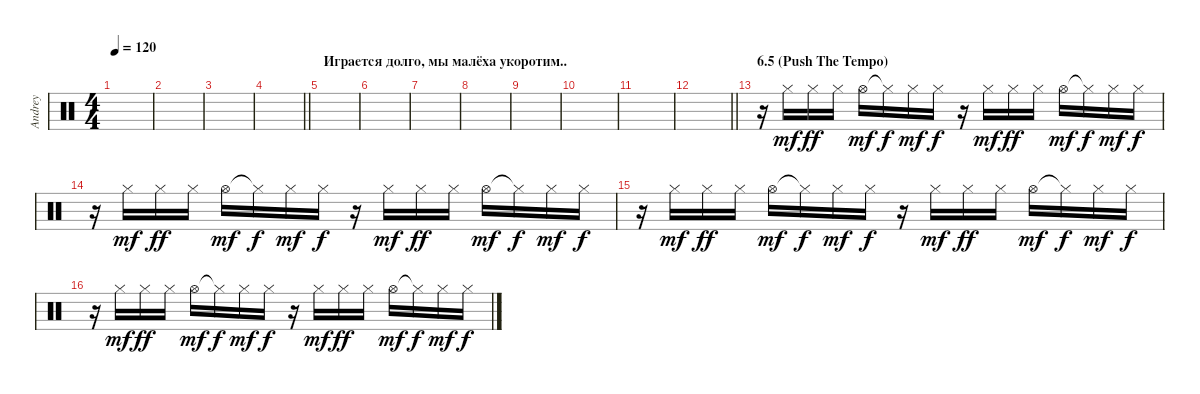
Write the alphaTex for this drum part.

\track ("Andrey" "Andrey") {instrument percussion}
\staff {score}
\articulation defaults
\ts (4 4)
\tempo 120
\clef neutral
\ks c
|
|
|
\barLineRight lightlight
|
\section ("" "Играется долго, мы малёха укоротим..")
|
|
|
|
|
|
|
\barLineRight lightlight
|
\section ("" "6.5 (Push The Tempo)")
r.16{volume 16} "Hi-Hat (closed)".16{dy mf} "Hi-Hat (closed)".16{dy ff} "Hi-Hat (closed)".16 "Hi-Hat (open)".16{dy mf} "Hi-Hat (closed)"{t}.16{dy f} "Hi-Hat (closed)".16{dy mf} "Hi-Hat (closed)".16{dy f} r.16 "Hi-Hat (closed)".16{dy mf} "Hi-Hat (closed)".16{dy ff} "Hi-Hat (closed)".16 "Hi-Hat (open)".16{dy mf} "Hi-Hat (closed)"{t}.16{dy f} "Hi-Hat (closed)".16{dy mf} "Hi-Hat (closed)".16{dy f} |
r.16 "Hi-Hat (closed)".16{dy mf} "Hi-Hat (closed)".16{dy ff} "Hi-Hat (closed)".16 "Hi-Hat (open)".16{dy mf} "Hi-Hat (closed)"{t}.16{dy f} "Hi-Hat (closed)".16{dy mf} "Hi-Hat (closed)".16{dy f} r.16 "Hi-Hat (closed)".16{dy mf} "Hi-Hat (closed)".16{dy ff} "Hi-Hat (closed)".16 "Hi-Hat (open)".16{dy mf} "Hi-Hat (closed)"{t}.16{dy f} "Hi-Hat (closed)".16{dy mf} "Hi-Hat (closed)".16{dy f} |
r.16 "Hi-Hat (closed)".16{dy mf} "Hi-Hat (closed)".16{dy ff} "Hi-Hat (closed)".16 "Hi-Hat (open)".16{dy mf} "Hi-Hat (closed)"{t}.16{dy f} "Hi-Hat (closed)".16{dy mf} "Hi-Hat (closed)".16{dy f} r.16 "Hi-Hat (closed)".16{dy mf} "Hi-Hat (closed)".16{dy ff} "Hi-Hat (closed)".16 "Hi-Hat (open)".16{dy mf} "Hi-Hat (closed)"{t}.16{dy f} "Hi-Hat (closed)".16{dy mf} "Hi-Hat (closed)".16{dy f} |
r.16 "Hi-Hat (closed)".16{dy mf} "Hi-Hat (closed)".16{dy ff} "Hi-Hat (closed)".16 "Hi-Hat (open)".16{dy mf} "Hi-Hat (closed)"{t}.16{dy f} "Hi-Hat (closed)".16{dy mf} "Hi-Hat (closed)".16{dy f} r.16 "Hi-Hat (closed)".16{dy mf} "Hi-Hat (closed)".16{dy ff} "Hi-Hat (closed)".16 "Hi-Hat (open)".16{dy mf} "Hi-Hat (closed)"{t}.16{dy f} "Hi-Hat (closed)".16{dy mf} "Hi-Hat (closed)".16{dy f}
